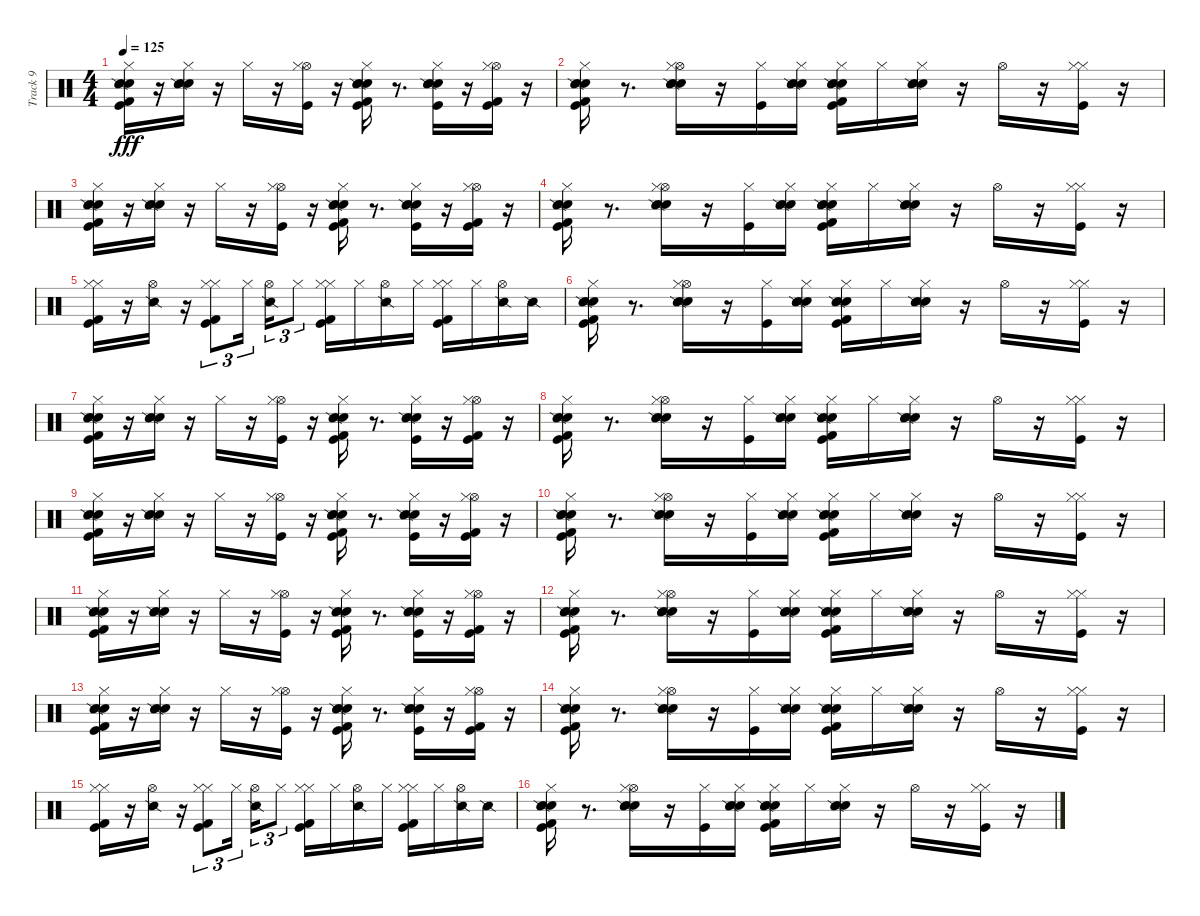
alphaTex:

\track ("Track 9" "Track 9") {instrument percussion}
\staff {score}
\articulation defaults
\ts (4 4)
\tempo 125
\clef neutral
\ks c
("Electric Snare (hit)" "Metronome (bell)" "Snare (side stick) 2" "Kick (hit)" "Kick (hit) 2" "Hi-Hat (closed)").16{dy fff} r.16 ("Metronome (bell)" "Snare (side stick) 2" "Electric Snare (hit)" "Hi-Hat (closed)").16 r.16 "Hi-Hat (closed)".16 r.16 ("Kick (hit)" "Hi-Hat (open)" "Hi-Hat (closed)").16 r.16 ("Metronome (bell)" "Snare (side stick) 2" "Electric Snare (hit)" "Kick (hit)" "Kick (hit) 2" "Hi-Hat (closed)").16 r.8{d} ("Metronome (bell)" "Snare (side stick) 2" "Electric Snare (hit)" "Kick (hit)" "Hi-Hat (closed)").16 r.16 ("Kick (hit)" "Kick (hit) 2" "Hi-Hat (open)" "Hi-Hat (closed)").16 r.16 |
("Metronome (bell)" "Snare (side stick) 2" "Kick (hit)" "Kick (hit) 2" "Electric Snare (hit)" "Hi-Hat (closed)").16 r.8{d} ("Metronome (bell)" "Snare (side stick) 2" "Electric Snare (hit)" "Hi-Hat (open)" "Hi-Hat (closed)").16 r.16 ("Kick (hit)" "Hi-Hat (closed)").16 ("Metronome (bell)" "Snare (side stick) 2" "Electric Snare (hit)" "Hi-Hat (closed)").16 ("Metronome (bell)" "Snare (side stick) 2" "Kick (hit)" "Kick (hit) 2" "Electric Snare (hit)" "Hi-Hat (closed)").16 "Hi-Hat (closed)".16 ("Metronome (bell)" "Snare (side stick) 2" "Electric Snare (hit)" "Hi-Hat (closed)").16 r.16 "Hi-Hat (open)".16 r.16 ("Kick (hit)" "Hi-Hat (closed)" "Hi-Hat (closed)").16 r.16 |
("Electric Snare (hit)" "Metronome (bell)" "Snare (side stick) 2" "Kick (hit)" "Kick (hit) 2" "Hi-Hat (closed)").16 r.16 ("Metronome (bell)" "Snare (side stick) 2" "Electric Snare (hit)" "Hi-Hat (closed)").16 r.16 "Hi-Hat (closed)".16 r.16 ("Kick (hit)" "Hi-Hat (open)" "Hi-Hat (closed)").16 r.16 ("Metronome (bell)" "Snare (side stick) 2" "Electric Snare (hit)" "Kick (hit)" "Kick (hit) 2" "Hi-Hat (closed)").16 r.8{d} ("Metronome (bell)" "Snare (side stick) 2" "Electric Snare (hit)" "Kick (hit)" "Hi-Hat (closed)").16 r.16 ("Kick (hit)" "Kick (hit) 2" "Hi-Hat (open)" "Hi-Hat (closed)").16 r.16 |
("Metronome (bell)" "Snare (side stick) 2" "Kick (hit)" "Kick (hit) 2" "Electric Snare (hit)" "Hi-Hat (closed)").16 r.8{d} ("Metronome (bell)" "Snare (side stick) 2" "Electric Snare (hit)" "Hi-Hat (open)" "Hi-Hat (closed)").16 r.16 ("Kick (hit)" "Hi-Hat (closed)").16 ("Metronome (bell)" "Snare (side stick) 2" "Electric Snare (hit)" "Hi-Hat (closed)").16 ("Metronome (bell)" "Snare (side stick) 2" "Kick (hit)" "Kick (hit) 2" "Electric Snare (hit)" "Hi-Hat (closed)").16 "Hi-Hat (closed)".16 ("Metronome (bell)" "Snare (side stick) 2" "Electric Snare (hit)" "Hi-Hat (closed)").16 r.16 "Hi-Hat (open)".16 r.16 ("Kick (hit)" "Hi-Hat (closed)" "Hi-Hat (closed)").16 r.16 |
("Kick (hit)" "Kick (hit) 2" "Hi-Hat (closed)" "Hi-Hat (closed)").16 r.16 ("Snare (side stick) 2" "Hi-Hat (open)").16 r.16 ("Kick (hit)" "Kick (hit) 2" "Hi-Hat (closed)" "Hi-Hat (closed)").8{tu (3 2)} "Hi-Hat (closed)".16{tu (3 2) beam splitsecondary} ("Snare (side stick) 2" "Hi-Hat (open)").16{tu (3 2)} "Hi-Hat (closed)".8{tu (3 2)} ("Kick (hit)" "Kick (hit) 2" "Hi-Hat (closed)" "Hi-Hat (closed)").16 "Hi-Hat (closed)".16 ("Snare (side stick) 2" "Hi-Hat (open)").16 "Hi-Hat (closed)".16 ("Kick (hit)" "Kick (hit) 2" "Hi-Hat (closed)" "Hi-Hat (closed)").16 "Hi-Hat (closed)".16 ("Snare (side stick) 2" "Hi-Hat (open)").16 "Snare (side stick) 2".16 |
("Metronome (bell)" "Snare (side stick) 2" "Kick (hit)" "Kick (hit) 2" "Electric Snare (hit)" "Hi-Hat (closed)").16 r.8{d} ("Metronome (bell)" "Snare (side stick) 2" "Electric Snare (hit)" "Hi-Hat (open)" "Hi-Hat (closed)").16 r.16 ("Kick (hit)" "Hi-Hat (closed)").16 ("Metronome (bell)" "Snare (side stick) 2" "Electric Snare (hit)" "Hi-Hat (closed)").16 ("Metronome (bell)" "Snare (side stick) 2" "Kick (hit)" "Kick (hit) 2" "Electric Snare (hit)" "Hi-Hat (closed)").16 "Hi-Hat (closed)".16 ("Metronome (bell)" "Snare (side stick) 2" "Electric Snare (hit)" "Hi-Hat (closed)").16 r.16 "Hi-Hat (open)".16 r.16 ("Kick (hit)" "Hi-Hat (closed)" "Hi-Hat (closed)").16 r.16 |
("Electric Snare (hit)" "Metronome (bell)" "Snare (side stick) 2" "Kick (hit)" "Kick (hit) 2" "Hi-Hat (closed)").16 r.16 ("Metronome (bell)" "Snare (side stick) 2" "Electric Snare (hit)" "Hi-Hat (closed)").16 r.16 "Hi-Hat (closed)".16 r.16 ("Kick (hit)" "Hi-Hat (open)" "Hi-Hat (closed)").16 r.16 ("Metronome (bell)" "Snare (side stick) 2" "Electric Snare (hit)" "Kick (hit)" "Kick (hit) 2" "Hi-Hat (closed)").16 r.8{d} ("Metronome (bell)" "Snare (side stick) 2" "Electric Snare (hit)" "Kick (hit)" "Hi-Hat (closed)").16 r.16 ("Kick (hit)" "Kick (hit) 2" "Hi-Hat (open)" "Hi-Hat (closed)").16 r.16 |
("Metronome (bell)" "Snare (side stick) 2" "Kick (hit)" "Kick (hit) 2" "Electric Snare (hit)" "Hi-Hat (closed)").16 r.8{d} ("Metronome (bell)" "Snare (side stick) 2" "Electric Snare (hit)" "Hi-Hat (open)" "Hi-Hat (closed)").16 r.16 ("Kick (hit)" "Hi-Hat (closed)").16 ("Metronome (bell)" "Snare (side stick) 2" "Electric Snare (hit)" "Hi-Hat (closed)").16 ("Metronome (bell)" "Snare (side stick) 2" "Kick (hit)" "Kick (hit) 2" "Electric Snare (hit)" "Hi-Hat (closed)").16 "Hi-Hat (closed)".16 ("Metronome (bell)" "Snare (side stick) 2" "Electric Snare (hit)" "Hi-Hat (closed)").16 r.16 "Hi-Hat (open)".16 r.16 ("Kick (hit)" "Hi-Hat (closed)" "Hi-Hat (closed)").16 r.16 |
("Electric Snare (hit)" "Metronome (bell)" "Snare (side stick) 2" "Kick (hit)" "Kick (hit) 2" "Hi-Hat (closed)").16 r.16 ("Metronome (bell)" "Snare (side stick) 2" "Electric Snare (hit)" "Hi-Hat (closed)").16 r.16 "Hi-Hat (closed)".16 r.16 ("Kick (hit)" "Hi-Hat (open)" "Hi-Hat (closed)").16 r.16 ("Metronome (bell)" "Snare (side stick) 2" "Electric Snare (hit)" "Kick (hit)" "Kick (hit) 2" "Hi-Hat (closed)").16 r.8{d} ("Metronome (bell)" "Snare (side stick) 2" "Electric Snare (hit)" "Kick (hit)" "Hi-Hat (closed)").16 r.16 ("Kick (hit)" "Kick (hit) 2" "Hi-Hat (open)" "Hi-Hat (closed)").16 r.16 |
("Metronome (bell)" "Snare (side stick) 2" "Kick (hit)" "Kick (hit) 2" "Electric Snare (hit)" "Hi-Hat (closed)").16 r.8{d} ("Metronome (bell)" "Snare (side stick) 2" "Electric Snare (hit)" "Hi-Hat (open)" "Hi-Hat (closed)").16 r.16 ("Kick (hit)" "Hi-Hat (closed)").16 ("Metronome (bell)" "Snare (side stick) 2" "Electric Snare (hit)" "Hi-Hat (closed)").16 ("Metronome (bell)" "Snare (side stick) 2" "Kick (hit)" "Kick (hit) 2" "Electric Snare (hit)" "Hi-Hat (closed)").16 "Hi-Hat (closed)".16 ("Metronome (bell)" "Snare (side stick) 2" "Electric Snare (hit)" "Hi-Hat (closed)").16 r.16 "Hi-Hat (open)".16 r.16 ("Kick (hit)" "Hi-Hat (closed)" "Hi-Hat (closed)").16 r.16 |
("Electric Snare (hit)" "Metronome (bell)" "Snare (side stick) 2" "Kick (hit)" "Kick (hit) 2" "Hi-Hat (closed)").16 r.16 ("Metronome (bell)" "Snare (side stick) 2" "Electric Snare (hit)" "Hi-Hat (closed)").16 r.16 "Hi-Hat (closed)".16 r.16 ("Kick (hit)" "Hi-Hat (open)" "Hi-Hat (closed)").16 r.16 ("Metronome (bell)" "Snare (side stick) 2" "Electric Snare (hit)" "Kick (hit)" "Kick (hit) 2" "Hi-Hat (closed)").16 r.8{d} ("Metronome (bell)" "Snare (side stick) 2" "Electric Snare (hit)" "Kick (hit)" "Hi-Hat (closed)").16 r.16 ("Kick (hit)" "Kick (hit) 2" "Hi-Hat (open)" "Hi-Hat (closed)").16 r.16 |
("Metronome (bell)" "Snare (side stick) 2" "Kick (hit)" "Kick (hit) 2" "Electric Snare (hit)" "Hi-Hat (closed)").16 r.8{d} ("Metronome (bell)" "Snare (side stick) 2" "Electric Snare (hit)" "Hi-Hat (open)" "Hi-Hat (closed)").16 r.16 ("Kick (hit)" "Hi-Hat (closed)").16 ("Metronome (bell)" "Snare (side stick) 2" "Electric Snare (hit)" "Hi-Hat (closed)").16 ("Metronome (bell)" "Snare (side stick) 2" "Kick (hit)" "Kick (hit) 2" "Electric Snare (hit)" "Hi-Hat (closed)").16 "Hi-Hat (closed)".16 ("Metronome (bell)" "Snare (side stick) 2" "Electric Snare (hit)" "Hi-Hat (closed)").16 r.16 "Hi-Hat (open)".16 r.16 ("Kick (hit)" "Hi-Hat (closed)" "Hi-Hat (closed)").16 r.16 |
("Electric Snare (hit)" "Metronome (bell)" "Snare (side stick) 2" "Kick (hit)" "Kick (hit) 2" "Hi-Hat (closed)").16 r.16 ("Metronome (bell)" "Snare (side stick) 2" "Electric Snare (hit)" "Hi-Hat (closed)").16 r.16 "Hi-Hat (closed)".16 r.16 ("Kick (hit)" "Hi-Hat (open)" "Hi-Hat (closed)").16 r.16 ("Metronome (bell)" "Snare (side stick) 2" "Electric Snare (hit)" "Kick (hit)" "Kick (hit) 2" "Hi-Hat (closed)").16 r.8{d} ("Metronome (bell)" "Snare (side stick) 2" "Electric Snare (hit)" "Kick (hit)" "Hi-Hat (closed)").16 r.16 ("Kick (hit)" "Kick (hit) 2" "Hi-Hat (open)" "Hi-Hat (closed)").16 r.16 |
("Metronome (bell)" "Snare (side stick) 2" "Kick (hit)" "Kick (hit) 2" "Electric Snare (hit)" "Hi-Hat (closed)").16 r.8{d} ("Metronome (bell)" "Snare (side stick) 2" "Electric Snare (hit)" "Hi-Hat (open)" "Hi-Hat (closed)").16 r.16 ("Kick (hit)" "Hi-Hat (closed)").16 ("Metronome (bell)" "Snare (side stick) 2" "Electric Snare (hit)" "Hi-Hat (closed)").16 ("Metronome (bell)" "Snare (side stick) 2" "Kick (hit)" "Kick (hit) 2" "Electric Snare (hit)" "Hi-Hat (closed)").16 "Hi-Hat (closed)".16 ("Metronome (bell)" "Snare (side stick) 2" "Electric Snare (hit)" "Hi-Hat (closed)").16 r.16 "Hi-Hat (open)".16 r.16 ("Kick (hit)" "Hi-Hat (closed)" "Hi-Hat (closed)").16 r.16 |
("Kick (hit)" "Kick (hit) 2" "Hi-Hat (closed)" "Hi-Hat (closed)").16 r.16 ("Snare (side stick) 2" "Hi-Hat (open)").16 r.16 ("Kick (hit)" "Kick (hit) 2" "Hi-Hat (closed)" "Hi-Hat (closed)").8{tu (3 2)} "Hi-Hat (closed)".16{tu (3 2) beam splitsecondary} ("Snare (side stick) 2" "Hi-Hat (open)").16{tu (3 2)} "Hi-Hat (closed)".8{tu (3 2)} ("Kick (hit)" "Kick (hit) 2" "Hi-Hat (closed)" "Hi-Hat (closed)").16 "Hi-Hat (closed)".16 ("Snare (side stick) 2" "Hi-Hat (open)").16 "Hi-Hat (closed)".16 ("Kick (hit)" "Kick (hit) 2" "Hi-Hat (closed)" "Hi-Hat (closed)").16 "Hi-Hat (closed)".16 ("Snare (side stick) 2" "Hi-Hat (open)").16 "Snare (side stick) 2".16 |
("Metronome (bell)" "Snare (side stick) 2" "Kick (hit)" "Kick (hit) 2" "Electric Snare (hit)" "Hi-Hat (closed)").16 r.8{d} ("Metronome (bell)" "Snare (side stick) 2" "Electric Snare (hit)" "Hi-Hat (open)" "Hi-Hat (closed)").16 r.16 ("Kick (hit)" "Hi-Hat (closed)").16 ("Metronome (bell)" "Snare (side stick) 2" "Electric Snare (hit)" "Hi-Hat (closed)").16 ("Metronome (bell)" "Snare (side stick) 2" "Kick (hit)" "Kick (hit) 2" "Electric Snare (hit)" "Hi-Hat (closed)").16 "Hi-Hat (closed)".16 ("Metronome (bell)" "Snare (side stick) 2" "Electric Snare (hit)" "Hi-Hat (closed)").16 r.16 "Hi-Hat (open)".16 r.16 ("Kick (hit)" "Hi-Hat (closed)" "Hi-Hat (closed)").16 r.16
